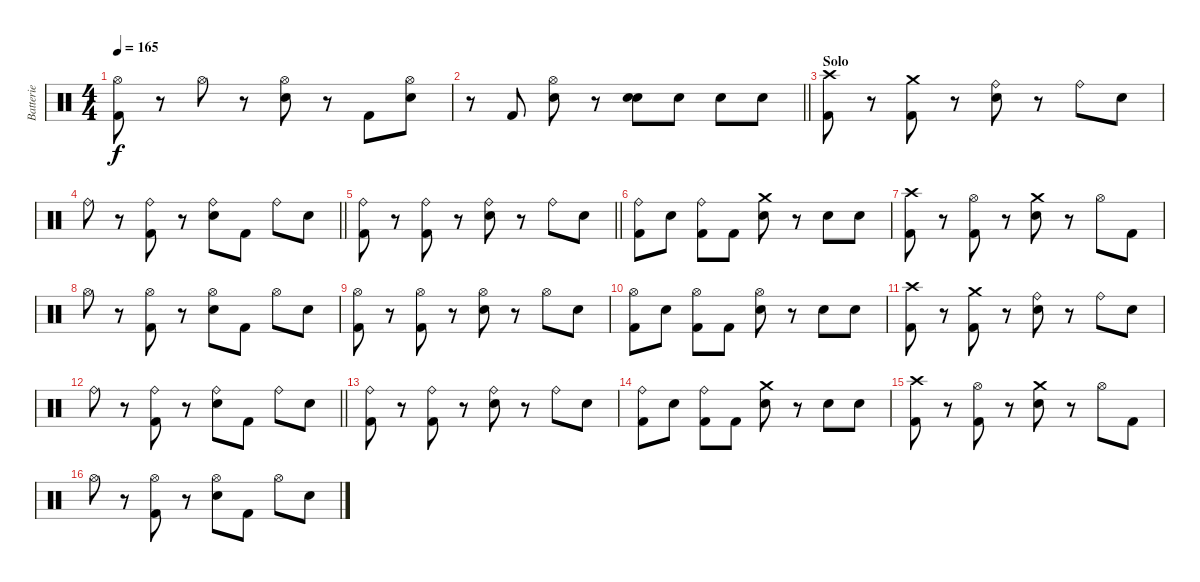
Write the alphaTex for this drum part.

\track ("Batterie" "Batterie") {instrument percussion}
\staff {score}
\articulation defaults
\ts (4 4)
\tempo 165
\clef neutral
\ks c
("Hi-Hat (open)" "Kick (hit) 2").8{dy f} r.8 "Hi-Hat (open)".8 r.8 ("Hi-Hat (open)" "Electric Snare (hit)").8 r.8 "Kick (hit) 2".8 ("Hi-Hat (open)" "Electric Snare (hit)").8 |
\barLineRight lightlight
r.8 "Kick (hit) 2".8 ("Hi-Hat (open)" "Electric Snare (hit)").8 r.8 ("Electric Snare (hit)" "Electric Snare (hit)").8{bu 120} "Electric Snare (hit)".8 "Electric Snare (hit)".8 "Electric Snare (hit)".8 |
\section ("" "Solo")
("Crash high (hit)" "Kick (hit) 2").8 r.8 ("Crash medium (hit)" "Kick (hit) 2").8 r.8 ("Ride (bell)" "Electric Snare (hit)").8 r.8 "Ride (bell)".8 "Electric Snare (hit)".8 |
\barLineRight lightlight "Ride (bell)".8
r.8 ("Ride (bell)" "Kick (hit) 2").8 r.8 ("Ride (bell)" "Electric Snare (hit)").8 "Kick (hit) 2".8 "Ride (bell)".8 "Electric Snare (hit)".8 |
\barLineRight lightlight
("Ride (bell)" "Kick (hit) 2").8 r.8 ("Ride (bell)" "Kick (hit) 2").8 r.8 ("Ride (bell)" "Electric Snare (hit)").8 r.8 "Ride (bell)".8 "Electric Snare (hit)".8 |
("Ride (bell)" "Kick (hit) 2").8 "Electric Snare (hit)".8 ("Ride (bell)" "Kick (hit) 2").8 "Kick (hit) 2".8 ("Crash medium (hit)" "Electric Snare (hit)").8 r.8 "Electric Snare (hit)".8 "Electric Snare (hit)".8 |
("Crash high (hit)" "Kick (hit) 2").8 r.8 ("Hi-Hat (open)" "Kick (hit) 2").8 r.8 ("Crash medium (hit)" "Electric Snare (hit)").8 r.8 "Hi-Hat (open)".8 "Kick (hit) 2".8 |
"Hi-Hat (open)".8 r.8 ("Hi-Hat (open)" "Kick (hit) 2").8 r.8 ("Hi-Hat (open)" "Electric Snare (hit)").8 "Kick (hit) 2".8 "Hi-Hat (open)".8 "Electric Snare (hit)".8 |
("Hi-Hat (open)" "Kick (hit) 2").8 r.8 ("Hi-Hat (open)" "Kick (hit) 2").8 r.8 ("Hi-Hat (open)" "Electric Snare (hit)").8 r.8 "Hi-Hat (open)".8 "Electric Snare (hit)".8 |
("Hi-Hat (open)" "Kick (hit) 2").8 "Electric Snare (hit)".8 ("Hi-Hat (open)" "Kick (hit) 2").8 "Kick (hit) 2".8 ("Hi-Hat (open)" "Electric Snare (hit)").8 r.8 "Electric Snare (hit)".8 "Electric Snare (hit)".8 |
("Crash high (hit)" "Kick (hit) 2").8 r.8 ("Crash medium (hit)" "Kick (hit) 2").8 r.8 ("Ride (bell)" "Electric Snare (hit)").8 r.8 "Ride (bell)".8 "Electric Snare (hit)".8 |
\barLineRight lightlight "Ride (bell)".8
r.8 ("Ride (bell)" "Kick (hit) 2").8 r.8 ("Ride (bell)" "Electric Snare (hit)").8 "Kick (hit) 2".8 "Ride (bell)".8 "Electric Snare (hit)".8 |
("Ride (bell)" "Kick (hit) 2").8 r.8 ("Ride (bell)" "Kick (hit) 2").8 r.8 ("Ride (bell)" "Electric Snare (hit)").8 r.8 "Ride (bell)".8 "Electric Snare (hit)".8 |
("Ride (bell)" "Kick (hit) 2").8 "Electric Snare (hit)".8 ("Ride (bell)" "Kick (hit) 2").8 "Kick (hit) 2".8 ("Crash medium (hit)" "Electric Snare (hit)").8 r.8 "Electric Snare (hit)".8 "Electric Snare (hit)".8 |
("Crash high (hit)" "Kick (hit) 2").8 r.8 ("Hi-Hat (open)" "Kick (hit) 2").8 r.8 ("Crash medium (hit)" "Electric Snare (hit)").8 r.8 "Hi-Hat (open)".8 "Kick (hit) 2".8 |
"Hi-Hat (open)".8 r.8 ("Hi-Hat (open)" "Kick (hit) 2").8 r.8 ("Hi-Hat (open)" "Electric Snare (hit)").8 "Kick (hit) 2".8 "Hi-Hat (open)".8 "Electric Snare (hit)".8
